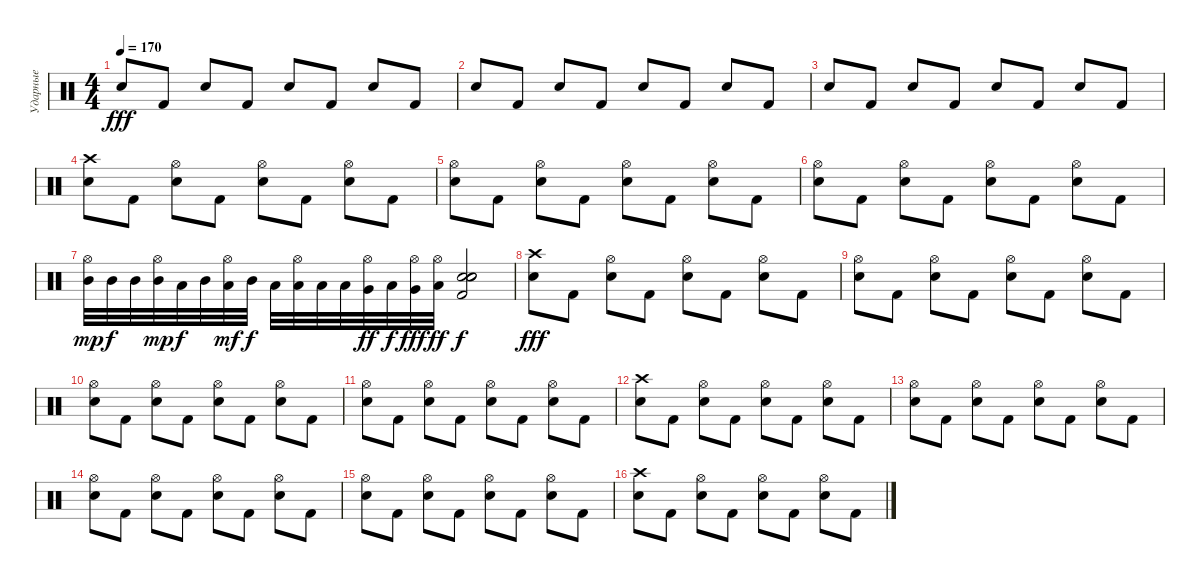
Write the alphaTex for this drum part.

\track ("Ударные" "Ударные") {instrument percussion}
\staff {score}
\articulation defaults
\ts (4 4)
\tempo 170
\clef neutral
\ks c "Electric Snare (hit)".8{dy fff} "Kick (hit) 2".8 "Electric Snare (hit)".8 "Kick (hit) 2".8 "Electric Snare (hit)".8 "Kick (hit) 2".8 "Electric Snare (hit)".8 "Kick (hit) 2".8
|
"Electric Snare (hit)".8 "Kick (hit) 2".8 "Electric Snare (hit)".8 "Kick (hit) 2".8 "Electric Snare (hit)".8 "Kick (hit) 2".8 "Electric Snare (hit)".8 "Kick (hit) 2".8 |
"Electric Snare (hit)".8 "Kick (hit) 2".8 "Electric Snare (hit)".8 "Kick (hit) 2".8 "Electric Snare (hit)".8 "Kick (hit) 2".8 "Electric Snare (hit)".8 "Kick (hit) 2".8 |
("Crash high (hit)" "Electric Snare (hit)").8 "Kick (hit) 2".8 ("Hi-Hat (open)" "Electric Snare (hit)").8 "Kick (hit) 2".8 ("Hi-Hat (open)" "Electric Snare (hit)").8 "Kick (hit) 2".8 ("Hi-Hat (open)" "Electric Snare (hit)").8 "Kick (hit) 2".8 |
("Hi-Hat (open)" "Electric Snare (hit)").8 "Kick (hit) 2".8 ("Hi-Hat (open)" "Electric Snare (hit)").8 "Kick (hit) 2".8 ("Hi-Hat (open)" "Electric Snare (hit)").8 "Kick (hit) 2".8 ("Hi-Hat (open)" "Electric Snare (hit)").8 "Kick (hit) 2".8 |
("Hi-Hat (open)" "Electric Snare (hit)").8 "Kick (hit) 2".8 ("Hi-Hat (open)" "Electric Snare (hit)").8 "Kick (hit) 2".8 ("Hi-Hat (open)" "Electric Snare (hit)").8 "Kick (hit) 2".8 ("Hi-Hat (open)" "Electric Snare (hit)").8 "Kick (hit) 2".8 |
("Hi-Hat (open)" "Mid Tom (hit)").32{dy mp} "Mid Tom (hit)".32{dy f} "Mid Tom (hit)".32 ("Hi-Hat (open)" "Mid Tom (hit)").32{dy mp} "Low Tom (hit)".32{dy f} "Mid Tom (hit)".32 ("Hi-Hat (open)" "Low Tom (hit)").32{dy mf} "Mid Tom (hit)".32{dy f} "Low Tom (hit)".32 ("Hi-Hat (open)" "Low Tom (hit)").32 "Low Tom (hit)".32 "Low Tom (hit)".32 ("Hi-Hat (open)" "Very Low Tom (hit)").32{dy ff} "Low Tom (hit)".32{dy f} ("Hi-Hat (open)" "Very Low Tom (hit)").32{dy fff} ("Hi-Hat (open)" "Low Tom (hit)").32{dy ff} ("Kick (hit) 2" "Electric Snare (hit)" "Electric Snare (hit)" "Electric Snare (hit)").2{dy f} |
("Crash high (hit)" "Electric Snare (hit)").8{dy fff} "Kick (hit) 2".8 ("Hi-Hat (open)" "Electric Snare (hit)").8 "Kick (hit) 2".8 ("Hi-Hat (open)" "Electric Snare (hit)").8 "Kick (hit) 2".8 ("Hi-Hat (open)" "Electric Snare (hit)").8 "Kick (hit) 2".8 |
("Hi-Hat (open)" "Electric Snare (hit)").8 "Kick (hit) 2".8 ("Hi-Hat (open)" "Electric Snare (hit)").8 "Kick (hit) 2".8 ("Hi-Hat (open)" "Electric Snare (hit)").8 "Kick (hit) 2".8 ("Hi-Hat (open)" "Electric Snare (hit)").8 "Kick (hit) 2".8 |
("Hi-Hat (open)" "Electric Snare (hit)").8 "Kick (hit) 2".8 ("Hi-Hat (open)" "Electric Snare (hit)").8 "Kick (hit) 2".8 ("Hi-Hat (open)" "Electric Snare (hit)").8 "Kick (hit) 2".8 ("Hi-Hat (open)" "Electric Snare (hit)").8 "Kick (hit) 2".8 |
("Hi-Hat (open)" "Electric Snare (hit)").8 "Kick (hit) 2".8 ("Hi-Hat (open)" "Electric Snare (hit)").8 "Kick (hit) 2".8 ("Hi-Hat (open)" "Electric Snare (hit)").8 "Kick (hit) 2".8 ("Hi-Hat (open)" "Electric Snare (hit)").8 "Kick (hit) 2".8 |
("Crash high (hit)" "Electric Snare (hit)").8 "Kick (hit) 2".8 ("Hi-Hat (open)" "Electric Snare (hit)").8 "Kick (hit) 2".8 ("Hi-Hat (open)" "Electric Snare (hit)").8 "Kick (hit) 2".8 ("Hi-Hat (open)" "Electric Snare (hit)").8 "Kick (hit) 2".8 |
("Hi-Hat (open)" "Electric Snare (hit)").8 "Kick (hit) 2".8 ("Hi-Hat (open)" "Electric Snare (hit)").8 "Kick (hit) 2".8 ("Hi-Hat (open)" "Electric Snare (hit)").8 "Kick (hit) 2".8 ("Hi-Hat (open)" "Electric Snare (hit)").8 "Kick (hit) 2".8 |
("Hi-Hat (open)" "Electric Snare (hit)").8 "Kick (hit) 2".8 ("Hi-Hat (open)" "Electric Snare (hit)").8 "Kick (hit) 2".8 ("Hi-Hat (open)" "Electric Snare (hit)").8 "Kick (hit) 2".8 ("Hi-Hat (open)" "Electric Snare (hit)").8 "Kick (hit) 2".8 |
("Hi-Hat (open)" "Electric Snare (hit)").8 "Kick (hit) 2".8 ("Hi-Hat (open)" "Electric Snare (hit)").8 "Kick (hit) 2".8 ("Hi-Hat (open)" "Electric Snare (hit)").8 "Kick (hit) 2".8 ("Hi-Hat (open)" "Electric Snare (hit)").8 "Kick (hit) 2".8 |
("Crash high (hit)" "Electric Snare (hit)").8 "Kick (hit) 2".8 ("Hi-Hat (open)" "Electric Snare (hit)").8 "Kick (hit) 2".8 ("Hi-Hat (open)" "Electric Snare (hit)").8 "Kick (hit) 2".8 ("Hi-Hat (open)" "Electric Snare (hit)").8 "Kick (hit) 2".8
